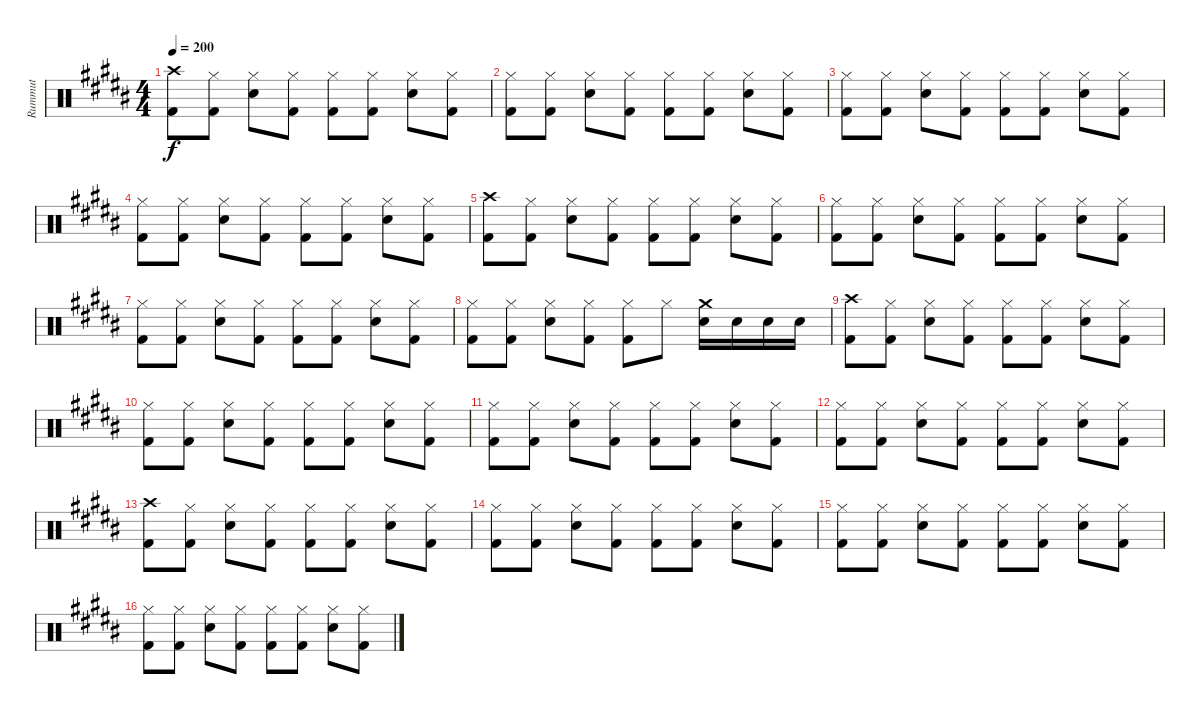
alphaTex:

\track ("Rummut" "Rummut") {instrument percussion}
\staff {score}
\articulation defaults
\ts (4 4)
\tempo 200
\clef neutral
\ks b
("Crash high (hit)" "Kick (hit) 2").8{dy f} ("Hi-Hat (closed)" "Kick (hit) 2").8 ("Hi-Hat (closed)" "Electric Snare (hit)").8 ("Hi-Hat (closed)" "Kick (hit) 2").8 ("Hi-Hat (closed)" "Kick (hit) 2").8 ("Hi-Hat (closed)" "Kick (hit) 2").8 ("Hi-Hat (closed)" "Electric Snare (hit)").8 ("Hi-Hat (closed)" "Kick (hit) 2").8 |
("Hi-Hat (closed)" "Kick (hit) 2").8 ("Hi-Hat (closed)" "Kick (hit) 2").8 ("Hi-Hat (closed)" "Electric Snare (hit)").8 ("Hi-Hat (closed)" "Kick (hit) 2").8 ("Hi-Hat (closed)" "Kick (hit) 2").8 ("Hi-Hat (closed)" "Kick (hit) 2").8 ("Hi-Hat (closed)" "Electric Snare (hit)").8 ("Hi-Hat (closed)" "Kick (hit) 2").8 |
("Hi-Hat (closed)" "Kick (hit) 2").8 ("Hi-Hat (closed)" "Kick (hit) 2").8 ("Hi-Hat (closed)" "Electric Snare (hit)").8 ("Hi-Hat (closed)" "Kick (hit) 2").8 ("Hi-Hat (closed)" "Kick (hit) 2").8 ("Hi-Hat (closed)" "Kick (hit) 2").8 ("Hi-Hat (closed)" "Electric Snare (hit)").8 ("Hi-Hat (closed)" "Kick (hit) 2").8 |
("Hi-Hat (closed)" "Kick (hit) 2").8 ("Hi-Hat (closed)" "Kick (hit) 2").8 ("Hi-Hat (closed)" "Electric Snare (hit)").8 ("Hi-Hat (closed)" "Kick (hit) 2").8 ("Hi-Hat (closed)" "Kick (hit) 2").8 ("Hi-Hat (closed)" "Kick (hit) 2").8 ("Hi-Hat (closed)" "Electric Snare (hit)").8 ("Hi-Hat (closed)" "Kick (hit) 2").8 |
("Crash high (hit)" "Kick (hit) 2").8 ("Hi-Hat (closed)" "Kick (hit) 2").8 ("Hi-Hat (closed)" "Electric Snare (hit)").8 ("Hi-Hat (closed)" "Kick (hit) 2").8 ("Hi-Hat (closed)" "Kick (hit) 2").8 ("Hi-Hat (closed)" "Kick (hit) 2").8 ("Hi-Hat (closed)" "Electric Snare (hit)").8 ("Hi-Hat (closed)" "Kick (hit) 2").8 |
("Hi-Hat (closed)" "Kick (hit) 2").8 ("Hi-Hat (closed)" "Kick (hit) 2").8 ("Hi-Hat (closed)" "Electric Snare (hit)").8 ("Hi-Hat (closed)" "Kick (hit) 2").8 ("Hi-Hat (closed)" "Kick (hit) 2").8 ("Hi-Hat (closed)" "Kick (hit) 2").8 ("Hi-Hat (closed)" "Electric Snare (hit)").8 ("Hi-Hat (closed)" "Kick (hit) 2").8 |
("Hi-Hat (closed)" "Kick (hit) 2").8 ("Hi-Hat (closed)" "Kick (hit) 2").8 ("Hi-Hat (closed)" "Electric Snare (hit)").8 ("Hi-Hat (closed)" "Kick (hit) 2").8 ("Hi-Hat (closed)" "Kick (hit) 2").8 ("Hi-Hat (closed)" "Kick (hit) 2").8 ("Hi-Hat (closed)" "Electric Snare (hit)").8 ("Hi-Hat (closed)" "Kick (hit) 2").8 |
("Hi-Hat (closed)" "Kick (hit) 2").8 ("Hi-Hat (closed)" "Kick (hit) 2").8 ("Hi-Hat (closed)" "Electric Snare (hit)").8 ("Hi-Hat (closed)" "Kick (hit) 2").8 ("Hi-Hat (closed)" "Kick (hit) 2").8 "Hi-Hat (closed)".8 ("Crash medium (hit)" "Electric Snare (hit)").16 "Electric Snare (hit)".16 "Electric Snare (hit)".16 "Electric Snare (hit)".16 |
("Crash high (hit)" "Kick (hit) 2").8 ("Hi-Hat (closed)" "Kick (hit) 2").8 ("Hi-Hat (closed)" "Electric Snare (hit)").8 ("Hi-Hat (closed)" "Kick (hit) 2").8 ("Hi-Hat (closed)" "Kick (hit) 2").8 ("Hi-Hat (closed)" "Kick (hit) 2").8 ("Hi-Hat (closed)" "Electric Snare (hit)").8 ("Hi-Hat (closed)" "Kick (hit) 2").8 |
("Hi-Hat (closed)" "Kick (hit) 2").8 ("Hi-Hat (closed)" "Kick (hit) 2").8 ("Hi-Hat (closed)" "Electric Snare (hit)").8 ("Hi-Hat (closed)" "Kick (hit) 2").8 ("Hi-Hat (closed)" "Kick (hit) 2").8 ("Hi-Hat (closed)" "Kick (hit) 2").8 ("Hi-Hat (closed)" "Electric Snare (hit)").8 ("Hi-Hat (closed)" "Kick (hit) 2").8 |
("Hi-Hat (closed)" "Kick (hit) 2").8 ("Hi-Hat (closed)" "Kick (hit) 2").8 ("Hi-Hat (closed)" "Electric Snare (hit)").8 ("Hi-Hat (closed)" "Kick (hit) 2").8 ("Hi-Hat (closed)" "Kick (hit) 2").8 ("Hi-Hat (closed)" "Kick (hit) 2").8 ("Hi-Hat (closed)" "Electric Snare (hit)").8 ("Hi-Hat (closed)" "Kick (hit) 2").8 |
("Hi-Hat (closed)" "Kick (hit) 2").8 ("Hi-Hat (closed)" "Kick (hit) 2").8 ("Hi-Hat (closed)" "Electric Snare (hit)").8 ("Hi-Hat (closed)" "Kick (hit) 2").8 ("Hi-Hat (closed)" "Kick (hit) 2").8 ("Hi-Hat (closed)" "Kick (hit) 2").8 ("Hi-Hat (closed)" "Electric Snare (hit)").8 ("Hi-Hat (closed)" "Kick (hit) 2").8 |
("Crash high (hit)" "Kick (hit) 2").8 ("Hi-Hat (closed)" "Kick (hit) 2").8 ("Hi-Hat (closed)" "Electric Snare (hit)").8 ("Hi-Hat (closed)" "Kick (hit) 2").8 ("Hi-Hat (closed)" "Kick (hit) 2").8 ("Hi-Hat (closed)" "Kick (hit) 2").8 ("Hi-Hat (closed)" "Electric Snare (hit)").8 ("Hi-Hat (closed)" "Kick (hit) 2").8 |
("Hi-Hat (closed)" "Kick (hit) 2").8 ("Hi-Hat (closed)" "Kick (hit) 2").8 ("Hi-Hat (closed)" "Electric Snare (hit)").8 ("Hi-Hat (closed)" "Kick (hit) 2").8 ("Hi-Hat (closed)" "Kick (hit) 2").8 ("Hi-Hat (closed)" "Kick (hit) 2").8 ("Hi-Hat (closed)" "Electric Snare (hit)").8 ("Hi-Hat (closed)" "Kick (hit) 2").8 |
("Hi-Hat (closed)" "Kick (hit) 2").8 ("Hi-Hat (closed)" "Kick (hit) 2").8 ("Hi-Hat (closed)" "Electric Snare (hit)").8 ("Hi-Hat (closed)" "Kick (hit) 2").8 ("Hi-Hat (closed)" "Kick (hit) 2").8 ("Hi-Hat (closed)" "Kick (hit) 2").8 ("Hi-Hat (closed)" "Electric Snare (hit)").8 ("Hi-Hat (closed)" "Kick (hit) 2").8 |
("Hi-Hat (closed)" "Kick (hit) 2").8 ("Hi-Hat (closed)" "Kick (hit) 2").8 ("Hi-Hat (closed)" "Electric Snare (hit)").8 ("Hi-Hat (closed)" "Kick (hit) 2").8 ("Hi-Hat (closed)" "Kick (hit) 2").8 ("Hi-Hat (closed)" "Kick (hit) 2").8 ("Hi-Hat (closed)" "Electric Snare (hit)").8 ("Hi-Hat (closed)" "Kick (hit) 2").8
